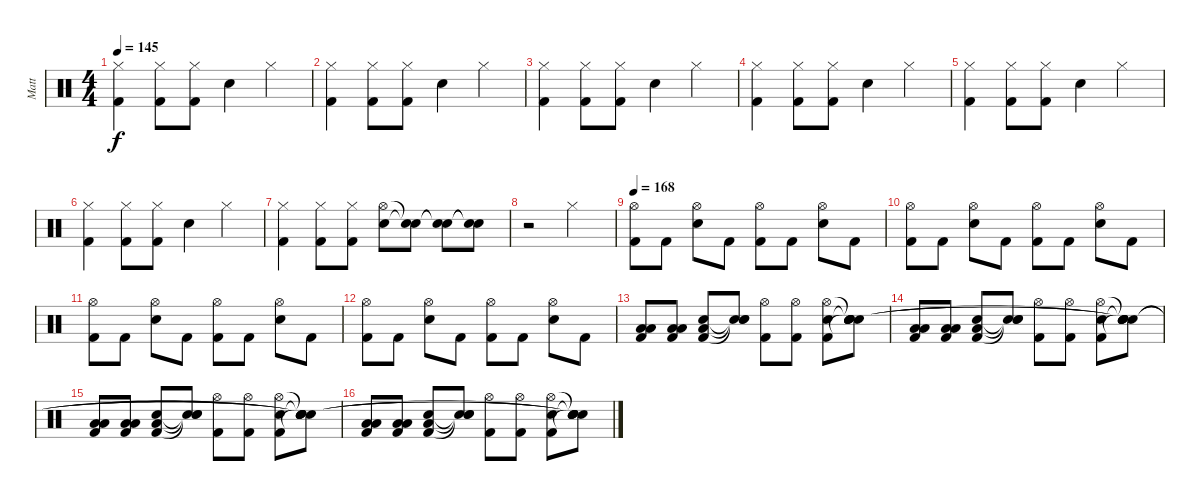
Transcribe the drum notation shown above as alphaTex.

\track ("Matt" "Matt") {instrument percussion}
\staff {score}
\articulation defaults
\ts (4 4)
\tempo 145
\clef neutral
\ks c
("Hi-Hat (closed)" "Kick (hit) 2").4{dy f} ("Hi-Hat (closed)" "Kick (hit) 2").8 ("Hi-Hat (closed)" "Kick (hit) 2").8 "Electric Snare (hit)".4 "Hi-Hat (closed)".4 |
("Hi-Hat (closed)" "Kick (hit) 2").4 ("Hi-Hat (closed)" "Kick (hit) 2").8 ("Hi-Hat (closed)" "Kick (hit) 2").8 "Electric Snare (hit)".4 "Hi-Hat (closed)".4 |
("Hi-Hat (closed)" "Kick (hit) 2").4 ("Hi-Hat (closed)" "Kick (hit) 2").8 ("Hi-Hat (closed)" "Kick (hit) 2").8 "Electric Snare (hit)".4 "Hi-Hat (closed)".4 |
("Hi-Hat (closed)" "Kick (hit) 2").4 ("Hi-Hat (closed)" "Kick (hit) 2").8 ("Hi-Hat (closed)" "Kick (hit) 2").8 "Electric Snare (hit)".4 "Hi-Hat (closed)".4 |
("Hi-Hat (closed)" "Kick (hit) 2").4 ("Hi-Hat (closed)" "Kick (hit) 2").8 ("Hi-Hat (closed)" "Kick (hit) 2").8 "Electric Snare (hit)".4 "Hi-Hat (closed)".4 |
("Hi-Hat (closed)" "Kick (hit) 2").4 ("Hi-Hat (closed)" "Kick (hit) 2").8 ("Hi-Hat (closed)" "Kick (hit) 2").8 "Electric Snare (hit)".4 "Hi-Hat (closed)".4 |
("Hi-Hat (closed)" "Kick (hit) 2").4 ("Hi-Hat (closed)" "Kick (hit) 2").8 ("Hi-Hat (closed)" "Kick (hit) 2").8 ("Hi-Hat (open)" "Electric Snare (hit)").8 ("Snare (hit)"{t} "Snare (hit)"{t}).8 ("Snare (hit)"{t} "Snare (hit)"{t}).8 ("Snare (hit)"{t} "Snare (hit)"{t}).8 |
r.2 "Hi-Hat (closed)".2 |
\tempo 168
("Hi-Hat (open)" "Kick (hit) 2").8 "Kick (hit) 2".8 ("Hi-Hat (open)" "Electric Snare (hit)").8 "Kick (hit) 2".8 ("Hi-Hat (open)" "Kick (hit) 2").8 "Kick (hit) 2".8 ("Hi-Hat (open)" "Electric Snare (hit)").8 "Kick (hit) 2".8 |
("Hi-Hat (open)" "Kick (hit) 2").8 "Kick (hit) 2".8 ("Hi-Hat (open)" "Electric Snare (hit)").8 "Kick (hit) 2".8 ("Hi-Hat (open)" "Kick (hit) 2").8 "Kick (hit) 2".8 ("Hi-Hat (open)" "Electric Snare (hit)").8 "Kick (hit) 2".8 |
("Hi-Hat (open)" "Kick (hit) 2").8 "Kick (hit) 2".8 ("Hi-Hat (open)" "Electric Snare (hit)").8 "Kick (hit) 2".8 ("Hi-Hat (open)" "Kick (hit) 2").8 "Kick (hit) 2".8 ("Hi-Hat (open)" "Electric Snare (hit)").8 "Kick (hit) 2".8 |
("Hi-Hat (open)" "Kick (hit) 2").8 "Kick (hit) 2".8 ("Hi-Hat (open)" "Electric Snare (hit)").8 "Kick (hit) 2".8 ("Hi-Hat (open)" "Kick (hit) 2").8 "Kick (hit) 2".8 ("Hi-Hat (open)" "Electric Snare (hit)").8 "Kick (hit) 2".8 |
("Low Tom (hit)" "Kick (hit) 2" "Low Floor Tom (hit)").8 ("Low Tom (hit)" "Kick (hit) 2" "Low Floor Tom (hit)").8 ("Electric Snare (hit)" "Kick (hit) 2" "Low Floor Tom (hit)").8 ("Snare (hit)"{t} "Snare (hit)"{t} "Snare (hit)"{t}).8 ("Hi-Hat (open)" "Kick (hit) 2").8 ("Hi-Hat (open)" "Kick (hit) 2").8 ("Hi-Hat (open)" "Electric Snare (hit)" "Kick (hit) 2").8 ("Snare (hit)"{t} "Snare (hit)"{t} "Snare (hit)"{t} "Snare (hit)" "Snare (hit)").8 |
("Low Tom (hit)" "Kick (hit) 2" "Low Floor Tom (hit)").8 ("Low Tom (hit)" "Kick (hit) 2" "Low Floor Tom (hit)").8 ("Electric Snare (hit)" "Kick (hit) 2" "Low Floor Tom (hit)").8 ("Snare (hit)"{t} "Snare (hit)"{t} "Snare (hit)"{t}).8 ("Hi-Hat (open)" "Kick (hit) 2").8 ("Hi-Hat (open)" "Kick (hit) 2").8 ("Hi-Hat (open)" "Electric Snare (hit)" "Kick (hit) 2").8 ("Snare (hit)"{t} "Snare (hit)"{t} "Snare (hit)"{t} "Snare (hit)"{t} "Snare (hit)"{t}).8 |
("Low Tom (hit)" "Kick (hit) 2" "Low Floor Tom (hit)").8 ("Low Tom (hit)" "Kick (hit) 2" "Low Floor Tom (hit)").8 ("Electric Snare (hit)" "Kick (hit) 2" "Low Floor Tom (hit)").8 ("Snare (hit)"{t} "Snare (hit)"{t} "Snare (hit)"{t}).8 ("Hi-Hat (open)" "Kick (hit) 2").8 ("Hi-Hat (open)" "Kick (hit) 2").8 ("Hi-Hat (open)" "Electric Snare (hit)" "Kick (hit) 2").8 ("Snare (hit)"{t} "Snare (hit)"{t} "Snare (hit)"{t} "Snare (hit)"{t} "Snare (hit)"{t}).8 |
("Low Tom (hit)" "Kick (hit) 2" "Low Floor Tom (hit)").8 ("Low Tom (hit)" "Kick (hit) 2" "Low Floor Tom (hit)").8 ("Electric Snare (hit)" "Kick (hit) 2" "Low Floor Tom (hit)").8 ("Snare (hit)"{t} "Snare (hit)"{t} "Snare (hit)"{t}).8 ("Hi-Hat (open)" "Kick (hit) 2").8 ("Hi-Hat (open)" "Kick (hit) 2").8 ("Hi-Hat (open)" "Electric Snare (hit)" "Kick (hit) 2").8 ("Snare (hit)"{t} "Snare (hit)"{t} "Snare (hit)"{t} "Snare (hit)"{t} "Snare (hit)"{t}).8
